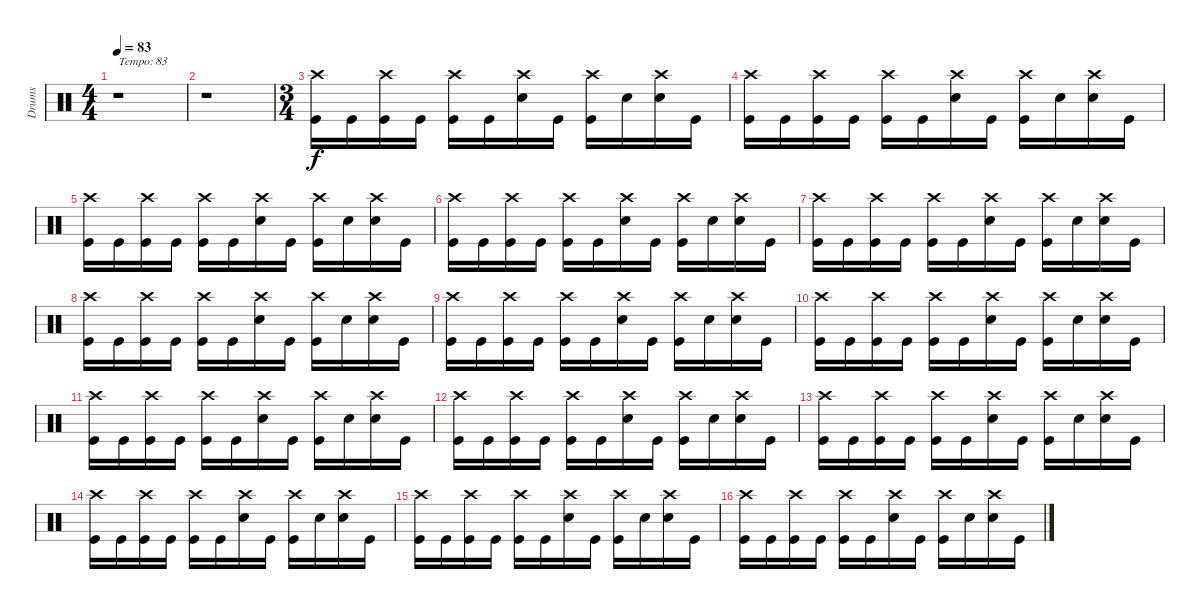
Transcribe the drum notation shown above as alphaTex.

\track ("Drums" "Drums") {instrument percussion}
\staff {score}
\articulation defaults
\ts (4 4)
\tempo 83
\clef neutral
\ks c
r.1{txt "Tempo: 83" dy f} |
r.1 |
\ts (3 4)
("Crash high (hit)" "Kick (hit)").16 "Kick (hit)".16 ("Crash high (hit)" "Kick (hit)").16 "Kick (hit)".16 ("Crash high (hit)" "Kick (hit)").16 "Kick (hit)".16 ("Crash high (hit)" "Snare (hit) 2").16 "Kick (hit)".16 ("Crash high (hit)" "Kick (hit)").16 "Snare (hit) 2".16 ("Crash high (hit)" "Snare (hit) 2").16 "Kick (hit)".16 |
("Crash high (hit)" "Kick (hit)").16 "Kick (hit)".16 ("Crash high (hit)" "Kick (hit)").16 "Kick (hit)".16 ("Crash high (hit)" "Kick (hit)").16 "Kick (hit)".16 ("Crash high (hit)" "Snare (hit) 2").16 "Kick (hit)".16 ("Crash high (hit)" "Kick (hit)").16 "Snare (hit) 2".16 ("Crash high (hit)" "Snare (hit) 2").16 "Kick (hit)".16 |
("Crash high (hit)" "Kick (hit)").16 "Kick (hit)".16 ("Crash high (hit)" "Kick (hit)").16 "Kick (hit)".16 ("Crash high (hit)" "Kick (hit)").16 "Kick (hit)".16 ("Crash high (hit)" "Snare (hit) 2").16 "Kick (hit)".16 ("Crash high (hit)" "Kick (hit)").16 "Snare (hit) 2".16 ("Crash high (hit)" "Snare (hit) 2").16 "Kick (hit)".16 |
("Crash high (hit)" "Kick (hit)").16 "Kick (hit)".16 ("Crash high (hit)" "Kick (hit)").16 "Kick (hit)".16 ("Crash high (hit)" "Kick (hit)").16 "Kick (hit)".16 ("Crash high (hit)" "Snare (hit) 2").16 "Kick (hit)".16 ("Crash high (hit)" "Kick (hit)").16 "Snare (hit) 2".16 ("Crash high (hit)" "Snare (hit) 2").16 "Kick (hit)".16 |
("Crash high (hit)" "Kick (hit)").16 "Kick (hit)".16 ("Crash high (hit)" "Kick (hit)").16 "Kick (hit)".16 ("Crash high (hit)" "Kick (hit)").16 "Kick (hit)".16 ("Crash high (hit)" "Snare (hit) 2").16 "Kick (hit)".16 ("Crash high (hit)" "Kick (hit)").16 "Snare (hit) 2".16 ("Crash high (hit)" "Snare (hit) 2").16 "Kick (hit)".16 |
("Crash high (hit)" "Kick (hit)").16 "Kick (hit)".16 ("Crash high (hit)" "Kick (hit)").16 "Kick (hit)".16 ("Crash high (hit)" "Kick (hit)").16 "Kick (hit)".16 ("Crash high (hit)" "Snare (hit) 2").16 "Kick (hit)".16 ("Crash high (hit)" "Kick (hit)").16 "Snare (hit) 2".16 ("Crash high (hit)" "Snare (hit) 2").16 "Kick (hit)".16 |
("Crash high (hit)" "Kick (hit)").16 "Kick (hit)".16 ("Crash high (hit)" "Kick (hit)").16 "Kick (hit)".16 ("Crash high (hit)" "Kick (hit)").16 "Kick (hit)".16 ("Crash high (hit)" "Snare (hit) 2").16 "Kick (hit)".16 ("Crash high (hit)" "Kick (hit)").16 "Snare (hit) 2".16 ("Crash high (hit)" "Snare (hit) 2").16 "Kick (hit)".16 |
("Crash high (hit)" "Kick (hit)").16 "Kick (hit)".16 ("Crash high (hit)" "Kick (hit)").16 "Kick (hit)".16 ("Crash high (hit)" "Kick (hit)").16 "Kick (hit)".16 ("Crash high (hit)" "Snare (hit) 2").16 "Kick (hit)".16 ("Crash high (hit)" "Kick (hit)").16 "Snare (hit) 2".16 ("Crash high (hit)" "Snare (hit) 2").16 "Kick (hit)".16 |
("Crash high (hit)" "Kick (hit)").16 "Kick (hit)".16 ("Crash high (hit)" "Kick (hit)").16 "Kick (hit)".16 ("Crash high (hit)" "Kick (hit)").16 "Kick (hit)".16 ("Crash high (hit)" "Snare (hit) 2").16 "Kick (hit)".16 ("Crash high (hit)" "Kick (hit)").16 "Snare (hit) 2".16 ("Crash high (hit)" "Snare (hit) 2").16 "Kick (hit)".16 |
("Crash high (hit)" "Kick (hit)").16 "Kick (hit)".16 ("Crash high (hit)" "Kick (hit)").16 "Kick (hit)".16 ("Crash high (hit)" "Kick (hit)").16 "Kick (hit)".16 ("Crash high (hit)" "Snare (hit) 2").16 "Kick (hit)".16 ("Crash high (hit)" "Kick (hit)").16 "Snare (hit) 2".16 ("Crash high (hit)" "Snare (hit) 2").16 "Kick (hit)".16 |
("Crash high (hit)" "Kick (hit)").16 "Kick (hit)".16 ("Crash high (hit)" "Kick (hit)").16 "Kick (hit)".16 ("Crash high (hit)" "Kick (hit)").16 "Kick (hit)".16 ("Crash high (hit)" "Snare (hit) 2").16 "Kick (hit)".16 ("Crash high (hit)" "Kick (hit)").16 "Snare (hit) 2".16 ("Crash high (hit)" "Snare (hit) 2").16 "Kick (hit)".16 |
("Crash high (hit)" "Kick (hit)").16 "Kick (hit)".16 ("Crash high (hit)" "Kick (hit)").16 "Kick (hit)".16 ("Crash high (hit)" "Kick (hit)").16 "Kick (hit)".16 ("Crash high (hit)" "Snare (hit) 2").16 "Kick (hit)".16 ("Crash high (hit)" "Kick (hit)").16 "Snare (hit) 2".16 ("Crash high (hit)" "Snare (hit) 2").16 "Kick (hit)".16 |
("Crash high (hit)" "Kick (hit)").16 "Kick (hit)".16 ("Crash high (hit)" "Kick (hit)").16 "Kick (hit)".16 ("Crash high (hit)" "Kick (hit)").16 "Kick (hit)".16 ("Crash high (hit)" "Snare (hit) 2").16 "Kick (hit)".16 ("Crash high (hit)" "Kick (hit)").16 "Snare (hit) 2".16 ("Crash high (hit)" "Snare (hit) 2").16 "Kick (hit)".16 |
("Crash high (hit)" "Kick (hit)").16 "Kick (hit)".16 ("Crash high (hit)" "Kick (hit)").16 "Kick (hit)".16 ("Crash high (hit)" "Kick (hit)").16 "Kick (hit)".16 ("Crash high (hit)" "Snare (hit) 2").16 "Kick (hit)".16 ("Crash high (hit)" "Kick (hit)").16 "Snare (hit) 2".16 ("Crash high (hit)" "Snare (hit) 2").16 "Kick (hit)".16
